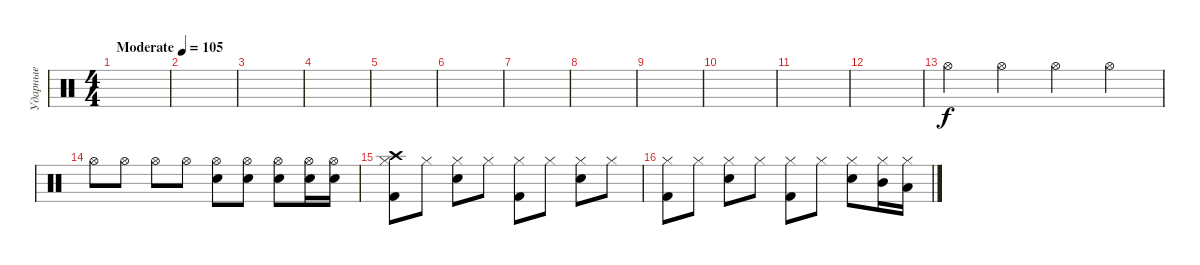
\track ("Ударные" "Ударные") {instrument percussion}
\staff {score}
\articulation defaults
\ts (4 4)
\tempo (105 "Moderate")
\clef neutral
\ks c
|
|
|
|
|
|
|
|
|
|
|
|
"Hi-Hat (open)".4 "Hi-Hat (open)".4 "Hi-Hat (open)".4 "Hi-Hat (open)".4 |
"Hi-Hat (open)".8 "Hi-Hat (open)".8 "Hi-Hat (open)".8 "Hi-Hat (open)".8 ("Snare (hit) 2" "Hi-Hat (open)").8 ("Snare (hit) 2" "Hi-Hat (open)").8 ("Snare (hit) 2" "Hi-Hat (open)").8 ("Snare (hit) 2" "Hi-Hat (open)").16 ("Snare (hit) 2" "Hi-Hat (open)").16 |
("Crash high (hit)" "Kick (hit) 2" "Hi-Hat (closed)").8 "Hi-Hat (closed)".8 ("Snare (hit) 2" "Hi-Hat (closed)").8 "Hi-Hat (closed)".8 ("Kick (hit) 2" "Hi-Hat (closed)").8 "Hi-Hat (closed)".8 ("Snare (hit) 2" "Hi-Hat (closed)").8 "Hi-Hat (closed)".8 |
("Kick (hit) 2" "Hi-Hat (closed)").8 "Hi-Hat (closed)".8 ("Snare (hit) 2" "Hi-Hat (closed)").8 "Hi-Hat (closed)".8 ("Kick (hit) 2" "Hi-Hat (closed)").8 "Hi-Hat (closed)".8 ("Snare (hit) 2" "Hi-Hat (closed)").8 ("Mid Tom (hit)" "Hi-Hat (closed)").16 ("Low Tom (hit)" "Hi-Hat (closed)").16
